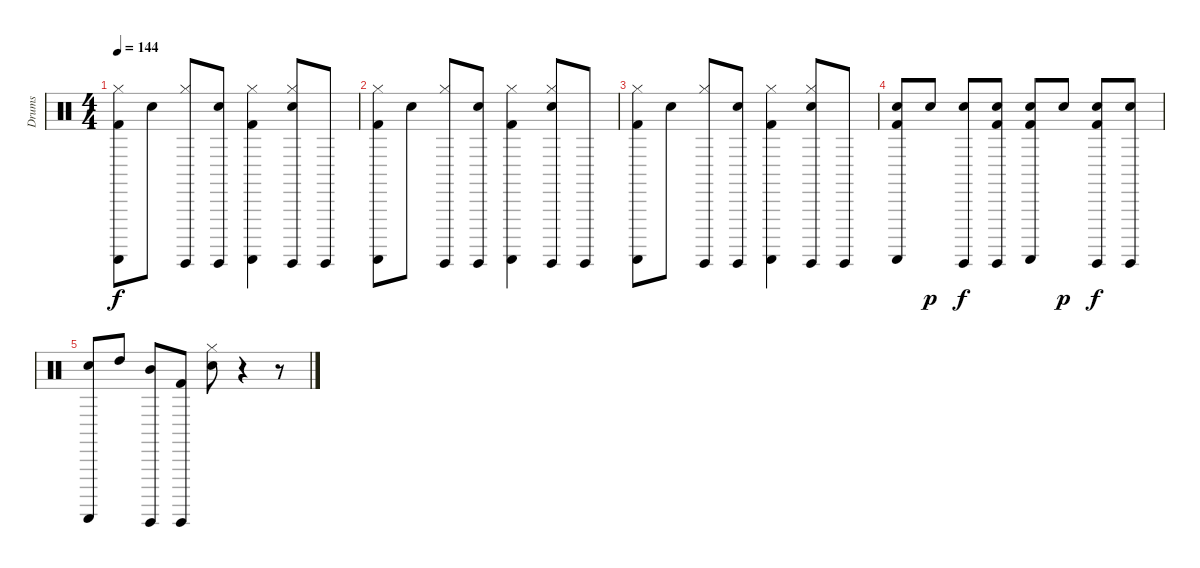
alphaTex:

\track ("Drums" "Drums") {instrument percussion}
\staff {score}
\articulation defaults
\ts (4 4)
\tempo 144
\clef neutral
\ks c
("Kick (hit) 2" "Guiro (scrap-return)" "Hi-Hat (closed)").8{dy f} "Electric Snare (hit)".8 ("Hi-Hat (closed)" "Guiro (hit)").8 ("Electric Snare (hit)" "Guiro (hit)").8 ("Hi-Hat (closed)" "Guiro (scrap-return)" "Kick (hit) 2").4 ("Guiro (hit)" "Electric Snare (hit)" "Hi-Hat (closed)").8 "Guiro (hit)".8 |
("Kick (hit) 2" "Guiro (scrap-return)" "Hi-Hat (closed)").8 "Electric Snare (hit)".8 ("Hi-Hat (closed)" "Guiro (hit)").8 ("Electric Snare (hit)" "Guiro (hit)").8 ("Hi-Hat (closed)" "Guiro (scrap-return)" "Kick (hit) 2").4 ("Guiro (hit)" "Electric Snare (hit)" "Hi-Hat (closed)").8 "Guiro (hit)".8 |
("Kick (hit) 2" "Guiro (scrap-return)" "Hi-Hat (closed)").8 "Electric Snare (hit)".8 ("Hi-Hat (closed)" "Guiro (hit)").8 ("Electric Snare (hit)" "Guiro (hit)").8 ("Hi-Hat (closed)" "Guiro (scrap-return)" "Kick (hit) 2").4 ("Guiro (hit)" "Electric Snare (hit)" "Hi-Hat (closed)").8 "Guiro (hit)".8 |
("Kick (hit) 2" "Hand Clap (hit)" "Guiro (scrap-return)").8 "Hand Clap (hit)".8{dy p} ("Hand Clap (hit)" "Guiro (hit)").8{dy f} ("Hand Clap (hit)" "Kick (hit) 2" "Guiro (hit)").8 ("Electric Snare (hit)" "Kick (hit) 2" "Guiro (scrap-return)").8 "Hand Clap (hit)".8{dy p} ("Electric Snare (hit)" "Kick (hit) 2" "Guiro (hit)").8{dy f} ("Hand Clap (hit)" "Guiro (hit)").8 |
("Electric Snare (hit)" "Guiro (scrap-return)").8 "High Tom (hit)".8 ("Mid Tom (hit)" "Guiro (hit)").8 ("Kick (hit) 2" "Guiro (hit)").8 ("Electric Snare (hit)" "Hi-Hat (closed)").8 r.4 r.8
